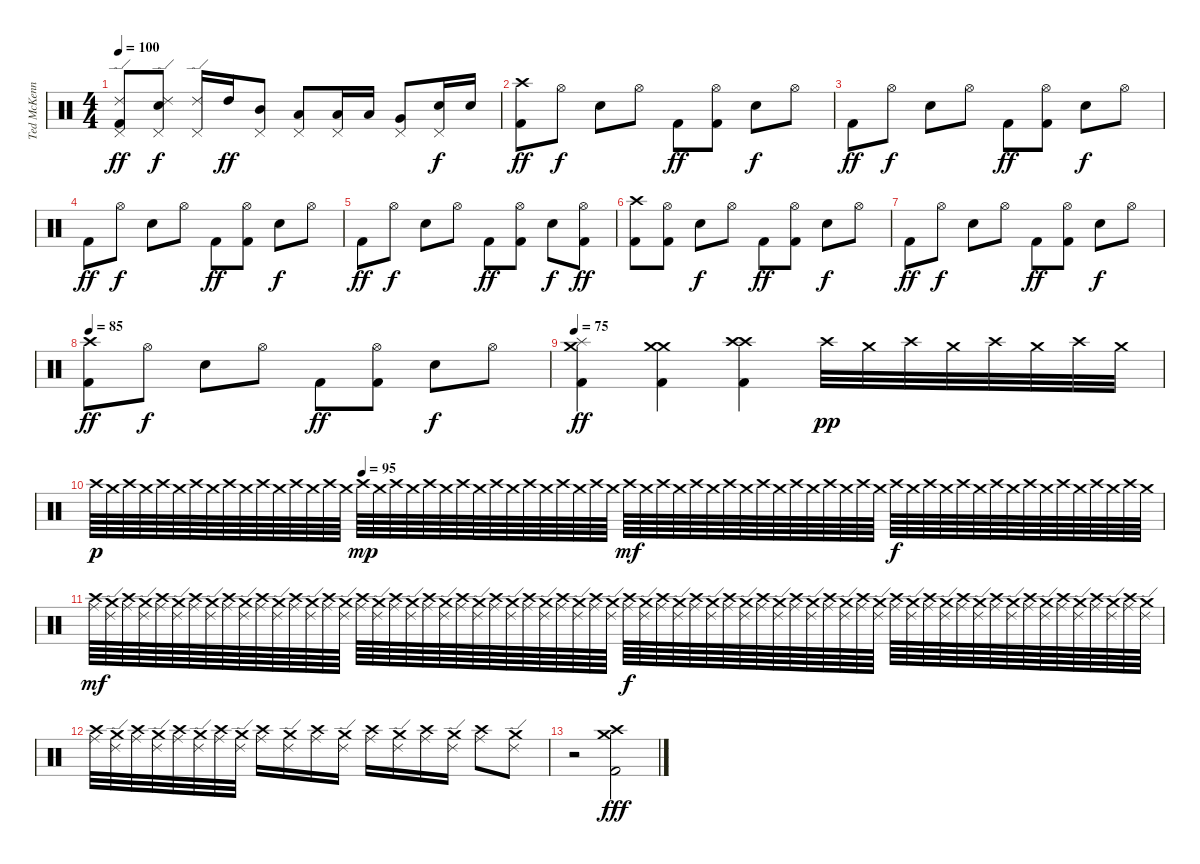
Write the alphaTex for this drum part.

\track ("Ted McKenna" "Ted McKenn") {instrument percussion}
\staff {score}
\articulation defaults
\ts (4 4)
\tempo 100
\clef neutral
\ks c
("Ride (edge) 2" "Pedal Hi-Hat (hit)" "Kick (hit) 2").8{dy ff} ("Ride (edge) 2" "Snare (hit) 2" "Pedal Hi-Hat (hit)").8{dy f} ("Ride (edge) 2" "Pedal Hi-Hat (hit)").16 "High Tom (hit)".16{dy ff} ("Mid Tom (hit)" "Pedal Hi-Hat (hit)").8 ("Low Tom (hit)" "Pedal Hi-Hat (hit)").8 ("Low Tom (hit)" "Pedal Hi-Hat (hit)").16 "Low Tom (hit)".16 ("Very Low Tom (hit)" "Pedal Hi-Hat (hit)").8 ("Snare (hit) 2" "Pedal Hi-Hat (hit)").16{dy f} "Snare (hit) 2".16 |
("Crash high (hit)" "Kick (hit) 2").8{dy ff} "Hi-Hat (open)".8{dy f} "Snare (hit) 2".8 "Hi-Hat (open)".8 "Kick (hit) 2".8{dy ff} ("Hi-Hat (open)" "Kick (hit) 2").8 "Snare (hit) 2".8{dy f} "Hi-Hat (open)".8 |
"Kick (hit) 2".8{dy ff} "Hi-Hat (open)".8{dy f} "Snare (hit) 2".8 "Hi-Hat (open)".8 "Kick (hit) 2".8{dy ff} ("Hi-Hat (open)" "Kick (hit) 2").8 "Snare (hit) 2".8{dy f} "Hi-Hat (open)".8 |
"Kick (hit) 2".8{dy ff} "Hi-Hat (open)".8{dy f} "Snare (hit) 2".8 "Hi-Hat (open)".8 "Kick (hit) 2".8{dy ff} ("Hi-Hat (open)" "Kick (hit) 2").8 "Snare (hit) 2".8{dy f} "Hi-Hat (open)".8 |
"Kick (hit) 2".8{dy ff} "Hi-Hat (open)".8{dy f} "Snare (hit) 2".8 "Hi-Hat (open)".8 "Kick (hit) 2".8{dy ff} ("Hi-Hat (open)" "Kick (hit) 2").8 "Snare (hit) 2".8{dy f} ("Hi-Hat (open)" "Kick (hit) 2").8{dy ff} |
("Crash high (hit)" "Kick (hit) 2").8 ("Hi-Hat (open)" "Kick (hit) 2").8 "Snare (hit) 2".8{dy f} "Hi-Hat (open)".8 "Kick (hit) 2".8{dy ff} ("Hi-Hat (open)" "Kick (hit) 2").8 "Snare (hit) 2".8{dy f} "Hi-Hat (open)".8 |
"Kick (hit) 2".8{dy ff} "Hi-Hat (open)".8{dy f} "Snare (hit) 2".8 "Hi-Hat (open)".8 "Kick (hit) 2".8{dy ff} ("Hi-Hat (open)" "Kick (hit) 2").8 "Snare (hit) 2".8{dy f} "Hi-Hat (open)".8 |
\tempo 85
("Crash high (hit)" "Kick (hit) 2").8{dy ff} "Hi-Hat (open)".8{dy f} "Snare (hit) 2".8 "Hi-Hat (open)".8 "Kick (hit) 2".8{dy ff} ("Hi-Hat (open)" "Kick (hit) 2").8 "Snare (hit) 2".8{dy f} "Hi-Hat (open)".8 |
\tempo 75
("Splash (hit)" "Crash medium (hit)" "Kick (hit) 2").4{dy ff} ("Crash medium (hit)" "Crash medium (hit)" "Kick (hit) 2").4 ("Crash high (hit)" "Crash high (hit)" "Kick (hit) 2").4 "Crash high (hit)".32{dy pp} "Crash medium (hit)".32 "Crash high (hit)".32 "Crash medium (hit)".32 "Crash high (hit)".32 "Crash medium (hit)".32 "Crash high (hit)".32 "Crash medium (hit)".32 |
\tempo (95 0.25)
"Crash high (hit)".64{dy p} "Crash medium (hit)".64 "Crash high (hit)".64 "Crash medium (hit)".64 "Crash high (hit)".64 "Crash medium (hit)".64 "Crash high (hit)".64 "Crash medium (hit)".64 "Crash high (hit)".64 "Crash medium (hit)".64 "Crash high (hit)".64 "Crash medium (hit)".64 "Crash high (hit)".64 "Crash medium (hit)".64 "Crash high (hit)".64 "Crash medium (hit)".64 "Crash high (hit)".64{dy mp} "Crash medium (hit)".64 "Crash high (hit)".64 "Crash medium (hit)".64 "Crash high (hit)".64 "Crash medium (hit)".64 "Crash high (hit)".64 "Crash medium (hit)".64 "Crash high (hit)".64 "Crash medium (hit)".64 "Crash high (hit)".64 "Crash medium (hit)".64 "Crash high (hit)".64 "Crash medium (hit)".64 "Crash high (hit)".64 "Crash medium (hit)".64 "Crash high (hit)".64{dy mf} "Crash medium (hit)".64 "Crash high (hit)".64 "Crash medium (hit)".64 "Crash high (hit)".64 "Crash medium (hit)".64 "Crash high (hit)".64 "Crash medium (hit)".64 "Crash high (hit)".64 "Crash medium (hit)".64 "Crash high (hit)".64 "Crash medium (hit)".64 "Crash high (hit)".64 "Crash medium (hit)".64 "Crash high (hit)".64 "Crash medium (hit)".64 "Crash high (hit)".64{dy f} "Crash medium (hit)".64 "Crash high (hit)".64 "Crash medium (hit)".64 "Crash high (hit)".64 "Crash medium (hit)".64 "Crash high (hit)".64 "Crash medium (hit)".64 "Crash high (hit)".64 "Crash medium (hit)".64 "Crash high (hit)".64 "Crash medium (hit)".64 "Crash high (hit)".64 "Crash medium (hit)".64 "Crash high (hit)".64 "Crash medium (hit)".64 |
("Ride (middle)" "Crash high (hit)").64{dy mf} ("Ride (edge) 2" "Crash medium (hit)").64 ("Ride (middle)" "Crash high (hit)").64 ("Ride (edge) 2" "Crash medium (hit)").64 ("Ride (middle)" "Crash high (hit)").64 ("Ride (edge) 2" "Crash medium (hit)").64 ("Ride (middle)" "Crash high (hit)").64 ("Ride (edge) 2" "Crash medium (hit)").64 ("Ride (middle)" "Crash high (hit)").64 ("Ride (edge) 2" "Crash medium (hit)").64 ("Ride (middle)" "Crash high (hit)").64 ("Ride (edge) 2" "Crash medium (hit)").64 ("Ride (middle)" "Crash high (hit)").64 ("Ride (edge) 2" "Crash medium (hit)").64 ("Ride (middle)" "Crash high (hit)").64 ("Ride (edge) 2" "Crash medium (hit)").64 ("Ride (middle)" "Crash high (hit)").64 ("Ride (edge) 2" "Crash medium (hit)").64 ("Ride (middle)" "Crash high (hit)").64 ("Ride (edge) 2" "Crash medium (hit)").64 ("Ride (middle)" "Crash high (hit)").64 ("Ride (edge) 2" "Crash medium (hit)").64 ("Ride (middle)" "Crash high (hit)").64 ("Ride (edge) 2" "Crash medium (hit)").64 ("Ride (middle)" "Crash high (hit)").64 ("Ride (edge) 2" "Crash medium (hit)").64 ("Ride (middle)" "Crash high (hit)").64 ("Ride (edge) 2" "Crash medium (hit)").64 ("Ride (middle)" "Crash high (hit)").64 ("Ride (edge) 2" "Crash medium (hit)").64 ("Ride (middle)" "Crash high (hit)").64 ("Ride (edge) 2" "Crash medium (hit)").64 ("Ride (middle)" "Crash high (hit)").64{dy f} ("Ride (edge) 2" "Crash medium (hit)").64 ("Ride (middle)" "Crash high (hit)").64 ("Ride (edge) 2" "Crash medium (hit)").64 ("Ride (middle)" "Crash high (hit)").64 ("Ride (edge) 2" "Crash medium (hit)").64 ("Ride (middle)" "Crash high (hit)").64 ("Ride (edge) 2" "Crash medium (hit)").64 ("Ride (middle)" "Crash high (hit)").64 ("Ride (edge) 2" "Crash medium (hit)").64 ("Ride (middle)" "Crash high (hit)").64 ("Ride (edge) 2" "Crash medium (hit)").64 ("Ride (middle)" "Crash high (hit)").64 ("Ride (edge) 2" "Crash medium (hit)").64 ("Ride (middle)" "Crash high (hit)").64 ("Ride (edge) 2" "Crash medium (hit)").64 ("Ride (middle)" "Crash high (hit)").64 ("Ride (edge) 2" "Crash medium (hit)").64 ("Ride (middle)" "Crash high (hit)").64 ("Ride (edge) 2" "Crash medium (hit)").64 ("Ride (middle)" "Crash high (hit)").64 ("Ride (edge) 2" "Crash medium (hit)").64 ("Ride (middle)" "Crash high (hit)").64 ("Ride (edge) 2" "Crash medium (hit)").64 ("Ride (middle)" "Crash high (hit)").64 ("Ride (edge) 2" "Crash medium (hit)").64 ("Ride (middle)" "Crash high (hit)").64 ("Ride (edge) 2" "Crash medium (hit)").64 ("Ride (middle)" "Crash high (hit)").64 ("Ride (edge) 2" "Crash medium (hit)").64 ("Ride (middle)" "Crash high (hit)").64 ("Ride (edge) 2" "Crash medium (hit)").64 |
("Ride (middle)" "Crash high (hit)").32 ("Ride (edge) 2" "Crash medium (hit)").32 ("Ride (middle)" "Crash high (hit)").32 ("Ride (edge) 2" "Crash medium (hit)").32 ("Ride (middle)" "Crash high (hit)").32 ("Ride (edge) 2" "Crash medium (hit)").32 ("Ride (middle)" "Crash high (hit)").32 ("Ride (edge) 2" "Crash medium (hit)").32 ("Ride (middle)" "Crash high (hit)").16 ("Ride (edge) 2" "Crash medium (hit)").16 ("Ride (middle)" "Crash high (hit)").16 ("Ride (edge) 2" "Crash medium (hit)").16 ("Ride (middle)" "Crash high (hit)").16 ("Ride (edge) 2" "Crash medium (hit)").16 ("Ride (middle)" "Crash high (hit)").16 ("Ride (edge) 2" "Crash medium (hit)").16 ("Ride (middle)" "Crash high (hit)").8 ("Ride (edge) 2" "Crash medium (hit)").8 |
r.2 ("Crash high (hit)" "Crash medium (hit)" "Kick (hit) 2").2{dy fff}
